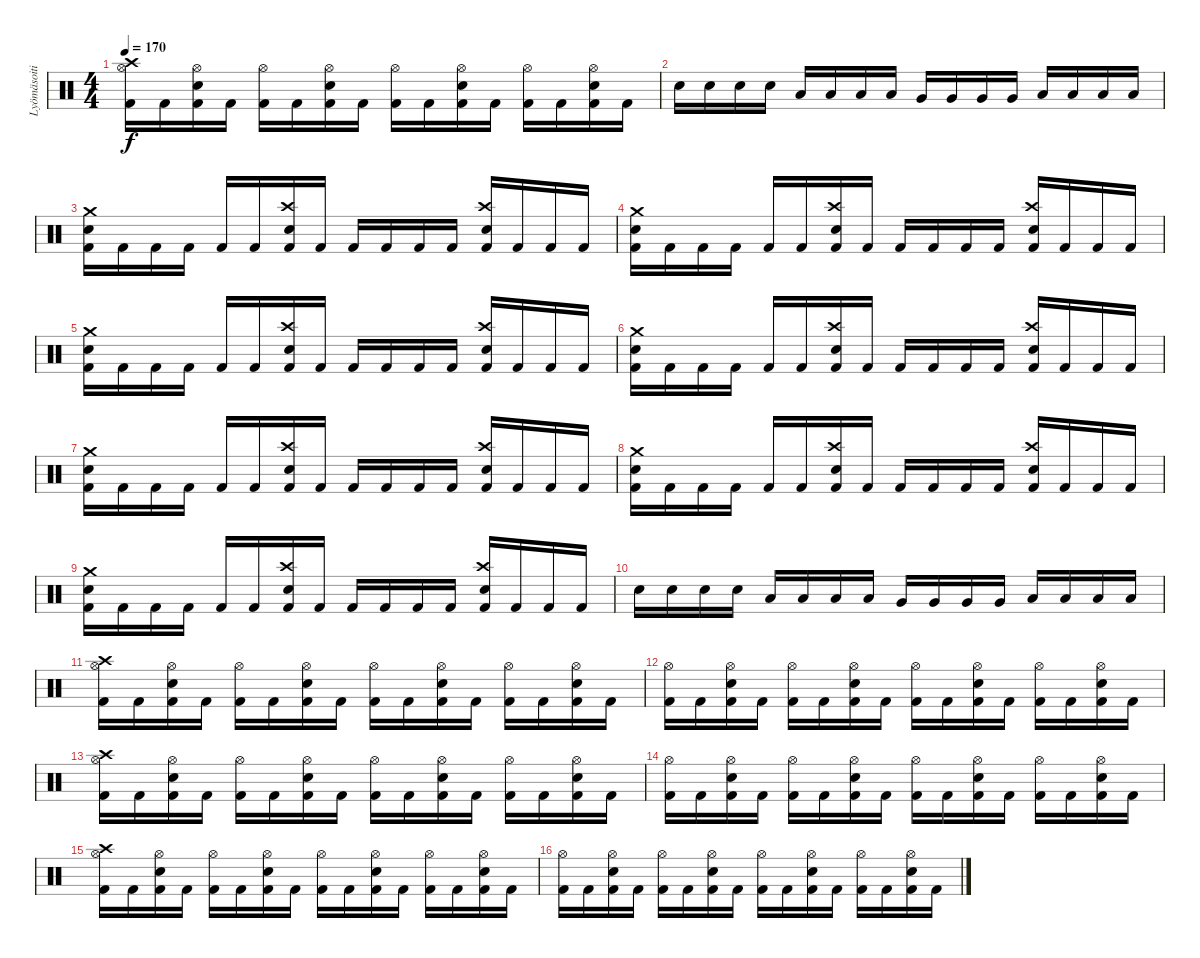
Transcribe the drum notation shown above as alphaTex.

\track ("Lyömäsoitin" "Lyömäsoiti") {instrument percussion}
\staff {score}
\articulation defaults
\ts (4 4)
\tempo 170
\clef neutral
\ks c
("Kick (hit) 2" "Crash high (hit)" "Hi-Hat (open)").16{dy f} "Kick (hit) 2".16 ("Kick (hit) 2" "Snare (hit) 2" "Hi-Hat (open)").16 "Kick (hit) 2".16 ("Kick (hit) 2" "Hi-Hat (open)").16 "Kick (hit) 2".16 ("Kick (hit) 2" "Snare (hit) 2" "Hi-Hat (open)").16 "Kick (hit) 2".16 ("Kick (hit) 2" "Hi-Hat (open)").16 "Kick (hit) 2".16 ("Kick (hit) 2" "Snare (hit) 2" "Hi-Hat (open)").16 "Kick (hit) 2".16 ("Kick (hit) 2" "Hi-Hat (open)").16 "Kick (hit) 2".16 ("Kick (hit) 2" "Snare (hit) 2" "Hi-Hat (open)").16 "Kick (hit) 2".16 |
"Snare (hit) 2".16 "Snare (hit) 2".16 "Snare (hit) 2".16 "Snare (hit) 2".16 "Low Tom (hit)".16 "Low Tom (hit)".16 "Low Tom (hit)".16 "Low Tom (hit)".16 "Very Low Tom (hit)".16 "Very Low Tom (hit)".16 "Very Low Tom (hit)".16 "Very Low Tom (hit)".16 "Low Floor Tom (hit)".16 "Low Floor Tom (hit)".16 "Low Floor Tom (hit)".16 "Low Floor Tom (hit)".16 |
("Kick (hit) 2" "Snare (hit) 2" "Crash medium (hit)").16 "Kick (hit) 2".16 "Kick (hit) 2".16 "Kick (hit) 2".16 "Kick (hit) 2".16 "Kick (hit) 2".16 ("Kick (hit) 2" "Snare (hit) 2" "Crash high (hit)").16 "Kick (hit) 2".16 "Kick (hit) 2".16 "Kick (hit) 2".16 "Kick (hit) 2".16 "Kick (hit) 2".16 ("Kick (hit) 2" "Snare (hit) 2" "Crash high (hit)").16 "Kick (hit) 2".16 "Kick (hit) 2".16 "Kick (hit) 2".16 |
("Kick (hit) 2" "Snare (hit) 2" "Crash medium (hit)").16 "Kick (hit) 2".16 "Kick (hit) 2".16 "Kick (hit) 2".16 "Kick (hit) 2".16 "Kick (hit) 2".16 ("Kick (hit) 2" "Snare (hit) 2" "Crash high (hit)").16 "Kick (hit) 2".16 "Kick (hit) 2".16 "Kick (hit) 2".16 "Kick (hit) 2".16 "Kick (hit) 2".16 ("Kick (hit) 2" "Snare (hit) 2" "Crash high (hit)").16 "Kick (hit) 2".16 "Kick (hit) 2".16 "Kick (hit) 2".16 |
("Kick (hit) 2" "Snare (hit) 2" "Crash medium (hit)").16 "Kick (hit) 2".16 "Kick (hit) 2".16 "Kick (hit) 2".16 "Kick (hit) 2".16 "Kick (hit) 2".16 ("Kick (hit) 2" "Snare (hit) 2" "Crash high (hit)").16 "Kick (hit) 2".16 "Kick (hit) 2".16 "Kick (hit) 2".16 "Kick (hit) 2".16 "Kick (hit) 2".16 ("Kick (hit) 2" "Snare (hit) 2" "Crash high (hit)").16 "Kick (hit) 2".16 "Kick (hit) 2".16 "Kick (hit) 2".16 |
("Kick (hit) 2" "Snare (hit) 2" "Crash medium (hit)").16 "Kick (hit) 2".16 "Kick (hit) 2".16 "Kick (hit) 2".16 "Kick (hit) 2".16 "Kick (hit) 2".16 ("Kick (hit) 2" "Snare (hit) 2" "Crash high (hit)").16 "Kick (hit) 2".16 "Kick (hit) 2".16 "Kick (hit) 2".16 "Kick (hit) 2".16 "Kick (hit) 2".16 ("Kick (hit) 2" "Snare (hit) 2" "Crash high (hit)").16 "Kick (hit) 2".16 "Kick (hit) 2".16 "Kick (hit) 2".16 |
("Kick (hit) 2" "Snare (hit) 2" "Crash medium (hit)").16 "Kick (hit) 2".16 "Kick (hit) 2".16 "Kick (hit) 2".16 "Kick (hit) 2".16 "Kick (hit) 2".16 ("Kick (hit) 2" "Snare (hit) 2" "Crash high (hit)").16 "Kick (hit) 2".16 "Kick (hit) 2".16 "Kick (hit) 2".16 "Kick (hit) 2".16 "Kick (hit) 2".16 ("Kick (hit) 2" "Snare (hit) 2" "Crash high (hit)").16 "Kick (hit) 2".16 "Kick (hit) 2".16 "Kick (hit) 2".16 |
("Kick (hit) 2" "Snare (hit) 2" "Crash medium (hit)").16 "Kick (hit) 2".16 "Kick (hit) 2".16 "Kick (hit) 2".16 "Kick (hit) 2".16 "Kick (hit) 2".16 ("Kick (hit) 2" "Snare (hit) 2" "Crash high (hit)").16 "Kick (hit) 2".16 "Kick (hit) 2".16 "Kick (hit) 2".16 "Kick (hit) 2".16 "Kick (hit) 2".16 ("Kick (hit) 2" "Snare (hit) 2" "Crash high (hit)").16 "Kick (hit) 2".16 "Kick (hit) 2".16 "Kick (hit) 2".16 |
("Kick (hit) 2" "Snare (hit) 2" "Crash medium (hit)").16 "Kick (hit) 2".16 "Kick (hit) 2".16 "Kick (hit) 2".16 "Kick (hit) 2".16 "Kick (hit) 2".16 ("Kick (hit) 2" "Snare (hit) 2" "Crash high (hit)").16 "Kick (hit) 2".16 "Kick (hit) 2".16 "Kick (hit) 2".16 "Kick (hit) 2".16 "Kick (hit) 2".16 ("Kick (hit) 2" "Snare (hit) 2" "Crash high (hit)").16 "Kick (hit) 2".16 "Kick (hit) 2".16 "Kick (hit) 2".16 |
"Snare (hit) 2".16 "Snare (hit) 2".16 "Snare (hit) 2".16 "Snare (hit) 2".16 "Low Tom (hit)".16 "Low Tom (hit)".16 "Low Tom (hit)".16 "Low Tom (hit)".16 "Very Low Tom (hit)".16 "Very Low Tom (hit)".16 "Very Low Tom (hit)".16 "Very Low Tom (hit)".16 "Low Floor Tom (hit)".16 "Low Floor Tom (hit)".16 "Low Floor Tom (hit)".16 "Low Floor Tom (hit)".16 |
("Kick (hit) 2" "Crash high (hit)" "Hi-Hat (open)").16 "Kick (hit) 2".16 ("Kick (hit) 2" "Snare (hit) 2" "Hi-Hat (open)").16 "Kick (hit) 2".16 ("Kick (hit) 2" "Hi-Hat (open)").16 "Kick (hit) 2".16 ("Kick (hit) 2" "Snare (hit) 2" "Hi-Hat (open)").16 "Kick (hit) 2".16 ("Kick (hit) 2" "Hi-Hat (open)").16 "Kick (hit) 2".16 ("Kick (hit) 2" "Snare (hit) 2" "Hi-Hat (open)").16 "Kick (hit) 2".16 ("Kick (hit) 2" "Hi-Hat (open)").16 "Kick (hit) 2".16 ("Kick (hit) 2" "Snare (hit) 2" "Hi-Hat (open)").16 "Kick (hit) 2".16 |
("Kick (hit) 2" "Hi-Hat (open)").16 "Kick (hit) 2".16 ("Kick (hit) 2" "Snare (hit) 2" "Hi-Hat (open)").16 "Kick (hit) 2".16 ("Kick (hit) 2" "Hi-Hat (open)").16 "Kick (hit) 2".16 ("Kick (hit) 2" "Snare (hit) 2" "Hi-Hat (open)").16 "Kick (hit) 2".16 ("Kick (hit) 2" "Hi-Hat (open)").16 "Kick (hit) 2".16 ("Kick (hit) 2" "Snare (hit) 2" "Hi-Hat (open)").16 "Kick (hit) 2".16 ("Kick (hit) 2" "Hi-Hat (open)").16 "Kick (hit) 2".16 ("Kick (hit) 2" "Snare (hit) 2" "Hi-Hat (open)").16 "Kick (hit) 2".16 |
("Kick (hit) 2" "Crash high (hit)" "Hi-Hat (open)").16 "Kick (hit) 2".16 ("Kick (hit) 2" "Snare (hit) 2" "Hi-Hat (open)").16 "Kick (hit) 2".16 ("Kick (hit) 2" "Hi-Hat (open)").16 "Kick (hit) 2".16 ("Kick (hit) 2" "Snare (hit) 2" "Hi-Hat (open)").16 "Kick (hit) 2".16 ("Kick (hit) 2" "Hi-Hat (open)").16 "Kick (hit) 2".16 ("Kick (hit) 2" "Snare (hit) 2" "Hi-Hat (open)").16 "Kick (hit) 2".16 ("Kick (hit) 2" "Hi-Hat (open)").16 "Kick (hit) 2".16 ("Kick (hit) 2" "Snare (hit) 2" "Hi-Hat (open)").16 "Kick (hit) 2".16 |
("Kick (hit) 2" "Hi-Hat (open)").16 "Kick (hit) 2".16 ("Kick (hit) 2" "Snare (hit) 2" "Hi-Hat (open)").16 "Kick (hit) 2".16 ("Kick (hit) 2" "Hi-Hat (open)").16 "Kick (hit) 2".16 ("Kick (hit) 2" "Snare (hit) 2" "Hi-Hat (open)").16 "Kick (hit) 2".16 ("Kick (hit) 2" "Hi-Hat (open)").16 "Kick (hit) 2".16 ("Kick (hit) 2" "Snare (hit) 2" "Hi-Hat (open)").16 "Kick (hit) 2".16 ("Kick (hit) 2" "Hi-Hat (open)").16 "Kick (hit) 2".16 ("Kick (hit) 2" "Snare (hit) 2" "Hi-Hat (open)").16 "Kick (hit) 2".16 |
("Kick (hit) 2" "Crash high (hit)" "Hi-Hat (open)").16 "Kick (hit) 2".16 ("Kick (hit) 2" "Snare (hit) 2" "Hi-Hat (open)").16 "Kick (hit) 2".16 ("Kick (hit) 2" "Hi-Hat (open)").16 "Kick (hit) 2".16 ("Kick (hit) 2" "Snare (hit) 2" "Hi-Hat (open)").16 "Kick (hit) 2".16 ("Kick (hit) 2" "Hi-Hat (open)").16 "Kick (hit) 2".16 ("Kick (hit) 2" "Snare (hit) 2" "Hi-Hat (open)").16 "Kick (hit) 2".16 ("Kick (hit) 2" "Hi-Hat (open)").16 "Kick (hit) 2".16 ("Kick (hit) 2" "Snare (hit) 2" "Hi-Hat (open)").16 "Kick (hit) 2".16 |
("Kick (hit) 2" "Hi-Hat (open)").16 "Kick (hit) 2".16 ("Kick (hit) 2" "Snare (hit) 2" "Hi-Hat (open)").16 "Kick (hit) 2".16 ("Kick (hit) 2" "Hi-Hat (open)").16 "Kick (hit) 2".16 ("Kick (hit) 2" "Snare (hit) 2" "Hi-Hat (open)").16 "Kick (hit) 2".16 ("Kick (hit) 2" "Hi-Hat (open)").16 "Kick (hit) 2".16 ("Kick (hit) 2" "Snare (hit) 2" "Hi-Hat (open)").16 "Kick (hit) 2".16 ("Kick (hit) 2" "Hi-Hat (open)").16 "Kick (hit) 2".16 ("Kick (hit) 2" "Snare (hit) 2" "Hi-Hat (open)").16 "Kick (hit) 2".16
